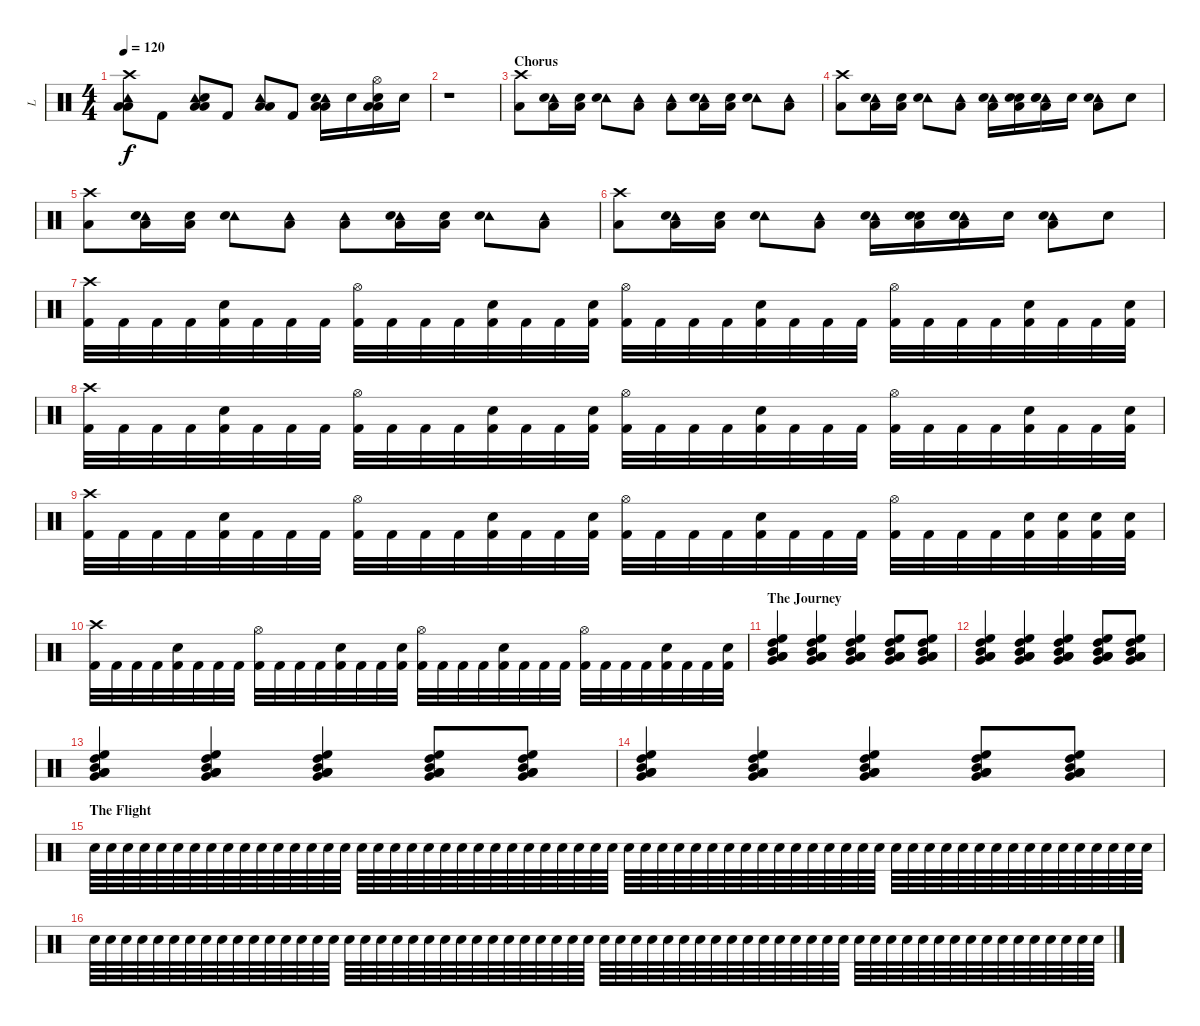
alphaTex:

\track ("L" "L") {instrument percussion}
\staff {score}
\articulation defaults
\ts (4 4)
\tempo 120
\clef neutral
\ks c
("Crash high (hit)" "Tambourine (hit)" "Low Floor Tom (hit)" "Low Floor Tom (hit)").8{dy f} "Kick (hit) 2".8 ("Tambourine (hit)" "Electric Snare (hit)" "Low Floor Tom (hit)" "Low Floor Tom (hit)").8 "Kick (hit) 2".8 ("Tambourine (hit)" "Low Floor Tom (hit)" "Low Floor Tom (hit)").8 "Kick (hit) 2".8 ("Tambourine (hit)" "Electric Snare (hit)" "Low Floor Tom (hit)" "Low Floor Tom (hit)").16 "Electric Snare (hit)".16 ("Hi-Hat (open)" "Electric Snare (hit)" "Low Floor Tom (hit)" "Low Floor Tom (hit)").16 "Electric Snare (hit)".16 |
r.1 |
\section ("" "Chorus")
("Crash high (hit)" "Low Floor Tom (hit)").8 ("Tambourine (hit)" "Snare (hit) 2" "Low Floor Tom (hit)").16 ("Snare (hit) 2" "Low Floor Tom (hit)").16 ("Tambourine (hit)" "Electric Snare (hit)").8 ("Tambourine (hit)" "Low Floor Tom (hit)").8 ("Tambourine (hit)" "Low Floor Tom (hit)").8 ("Tambourine (hit)" "Snare (hit) 2" "Low Floor Tom (hit)").16 ("Snare (hit) 2" "Low Floor Tom (hit)").16 ("Tambourine (hit)" "Electric Snare (hit)").8 ("Tambourine (hit)" "Low Floor Tom (hit)").8 |
("Crash high (hit)" "Low Floor Tom (hit)").8 ("Tambourine (hit)" "Snare (hit) 2" "Low Floor Tom (hit)").16 ("Snare (hit) 2" "Low Floor Tom (hit)").16 ("Tambourine (hit)" "Electric Snare (hit)").8 ("Tambourine (hit)" "Low Floor Tom (hit)").8 ("Tambourine (hit)" "Electric Snare (hit)" "Low Floor Tom (hit)").16 ("Electric Snare (hit)" "Snare (hit) 2" "Low Floor Tom (hit)").16 ("Tambourine (hit)" "Electric Snare (hit)" "Snare (hit) 2" "Low Floor Tom (hit)").16 "Electric Snare (hit)".16 ("Tambourine (hit)" "Electric Snare (hit)" "Low Floor Tom (hit)").8 "Electric Snare (hit)".8 |
("Crash high (hit)" "Low Floor Tom (hit)").8 ("Tambourine (hit)" "Snare (hit) 2" "Low Floor Tom (hit)").16 ("Snare (hit) 2" "Low Floor Tom (hit)").16 ("Tambourine (hit)" "Electric Snare (hit)").8 ("Tambourine (hit)" "Low Floor Tom (hit)").8 ("Tambourine (hit)" "Low Floor Tom (hit)").8 ("Tambourine (hit)" "Snare (hit) 2" "Low Floor Tom (hit)").16 ("Snare (hit) 2" "Low Floor Tom (hit)").16 ("Tambourine (hit)" "Electric Snare (hit)").8 ("Tambourine (hit)" "Low Floor Tom (hit)").8 |
("Crash high (hit)" "Low Floor Tom (hit)").8 ("Tambourine (hit)" "Snare (hit) 2" "Low Floor Tom (hit)").16 ("Snare (hit) 2" "Low Floor Tom (hit)").16 ("Tambourine (hit)" "Electric Snare (hit)").8 ("Tambourine (hit)" "Low Floor Tom (hit)").8 ("Tambourine (hit)" "Electric Snare (hit)" "Low Floor Tom (hit)").16 ("Electric Snare (hit)" "Snare (hit) 2" "Low Floor Tom (hit)").16 ("Tambourine (hit)" "Electric Snare (hit)" "Snare (hit) 2" "Low Floor Tom (hit)").16 "Electric Snare (hit)".16 ("Tambourine (hit)" "Electric Snare (hit)" "Low Floor Tom (hit)").8 "Electric Snare (hit)".8 |
("Crash high (hit)" "Kick (hit) 2").32 "Kick (hit) 2".32 "Kick (hit) 2".32 "Kick (hit) 2".32 ("Electric Snare (hit)" "Kick (hit) 2").32 "Kick (hit) 2".32 "Kick (hit) 2".32 "Kick (hit) 2".32 ("Hi-Hat (open)" "Kick (hit) 2").32 "Kick (hit) 2".32 "Kick (hit) 2".32 "Kick (hit) 2".32 ("Electric Snare (hit)" "Kick (hit) 2").32 "Kick (hit) 2".32 "Kick (hit) 2".32 ("Electric Snare (hit)" "Kick (hit) 2").32 ("Hi-Hat (open)" "Kick (hit) 2").32 "Kick (hit) 2".32 "Kick (hit) 2".32 "Kick (hit) 2".32 ("Electric Snare (hit)" "Kick (hit) 2").32 "Kick (hit) 2".32 "Kick (hit) 2".32 "Kick (hit) 2".32 ("Hi-Hat (open)" "Kick (hit) 2").32 "Kick (hit) 2".32 "Kick (hit) 2".32 "Kick (hit) 2".32 ("Electric Snare (hit)" "Kick (hit) 2").32 "Kick (hit) 2".32 "Kick (hit) 2".32 ("Electric Snare (hit)" "Kick (hit) 2").32 |
("Crash high (hit)" "Kick (hit) 2").32 "Kick (hit) 2".32 "Kick (hit) 2".32 "Kick (hit) 2".32 ("Electric Snare (hit)" "Kick (hit) 2").32 "Kick (hit) 2".32 "Kick (hit) 2".32 "Kick (hit) 2".32 ("Hi-Hat (open)" "Kick (hit) 2").32 "Kick (hit) 2".32 "Kick (hit) 2".32 "Kick (hit) 2".32 ("Electric Snare (hit)" "Kick (hit) 2").32 "Kick (hit) 2".32 "Kick (hit) 2".32 ("Electric Snare (hit)" "Kick (hit) 2").32 ("Hi-Hat (open)" "Kick (hit) 2").32 "Kick (hit) 2".32 "Kick (hit) 2".32 "Kick (hit) 2".32 ("Electric Snare (hit)" "Kick (hit) 2").32 "Kick (hit) 2".32 "Kick (hit) 2".32 "Kick (hit) 2".32 ("Hi-Hat (open)" "Kick (hit) 2").32 "Kick (hit) 2".32 "Kick (hit) 2".32 "Kick (hit) 2".32 ("Electric Snare (hit)" "Kick (hit) 2").32 "Kick (hit) 2".32 "Kick (hit) 2".32 ("Electric Snare (hit)" "Kick (hit) 2").32 |
("Crash high (hit)" "Kick (hit) 2").32 "Kick (hit) 2".32 "Kick (hit) 2".32 "Kick (hit) 2".32 ("Electric Snare (hit)" "Kick (hit) 2").32 "Kick (hit) 2".32 "Kick (hit) 2".32 "Kick (hit) 2".32 ("Hi-Hat (open)" "Kick (hit) 2").32 "Kick (hit) 2".32 "Kick (hit) 2".32 "Kick (hit) 2".32 ("Electric Snare (hit)" "Kick (hit) 2").32 "Kick (hit) 2".32 "Kick (hit) 2".32 ("Electric Snare (hit)" "Kick (hit) 2").32 ("Hi-Hat (open)" "Kick (hit) 2").32 "Kick (hit) 2".32 "Kick (hit) 2".32 "Kick (hit) 2".32 ("Electric Snare (hit)" "Kick (hit) 2").32 "Kick (hit) 2".32 "Kick (hit) 2".32 "Kick (hit) 2".32 ("Hi-Hat (open)" "Kick (hit) 2").32 "Kick (hit) 2".32 "Kick (hit) 2".32 "Kick (hit) 2".32 ("Electric Snare (hit)" "Kick (hit) 2").32 ("Electric Snare (hit)" "Kick (hit) 2").32 ("Electric Snare (hit)" "Kick (hit) 2").32 ("Electric Snare (hit)" "Kick (hit) 2").32 |
("Crash high (hit)" "Kick (hit) 2").32 "Kick (hit) 2".32 "Kick (hit) 2".32 "Kick (hit) 2".32 ("Electric Snare (hit)" "Kick (hit) 2").32 "Kick (hit) 2".32 "Kick (hit) 2".32 "Kick (hit) 2".32 ("Hi-Hat (open)" "Kick (hit) 2").32 "Kick (hit) 2".32 "Kick (hit) 2".32 "Kick (hit) 2".32 ("Electric Snare (hit)" "Kick (hit) 2").32 "Kick (hit) 2".32 "Kick (hit) 2".32 ("Electric Snare (hit)" "Kick (hit) 2").32 ("Hi-Hat (open)" "Kick (hit) 2").32 "Kick (hit) 2".32 "Kick (hit) 2".32 "Kick (hit) 2".32 ("Electric Snare (hit)" "Kick (hit) 2").32 "Kick (hit) 2".32 "Kick (hit) 2".32 "Kick (hit) 2".32 ("Hi-Hat (open)" "Kick (hit) 2").32 "Kick (hit) 2".32 "Kick (hit) 2".32 "Kick (hit) 2".32 ("Electric Snare (hit)" "Kick (hit) 2").32 "Kick (hit) 2".32 "Kick (hit) 2".32 ("Electric Snare (hit)" "Kick (hit) 2").32 |
\section ("" "The Journey")
("High Floor Tom (hit)" "High Tom (hit)" "Mid Tom (hit)" "Low Tom (hit)" "Very Low Tom (hit)" "Low Floor Tom (hit)").4 ("High Floor Tom (hit)" "High Tom (hit)" "Mid Tom (hit)" "Low Tom (hit)" "Very Low Tom (hit)" "Low Floor Tom (hit)").4 ("High Floor Tom (hit)" "High Tom (hit)" "Mid Tom (hit)" "Low Tom (hit)" "Very Low Tom (hit)" "Low Floor Tom (hit)").4 ("High Floor Tom (hit)" "High Tom (hit)" "Mid Tom (hit)" "Low Tom (hit)" "Very Low Tom (hit)" "Low Floor Tom (hit)").8 ("High Floor Tom (hit)" "High Tom (hit)" "Mid Tom (hit)" "Low Tom (hit)" "Very Low Tom (hit)" "Low Floor Tom (hit)").8 |
("High Floor Tom (hit)" "High Tom (hit)" "Mid Tom (hit)" "Low Tom (hit)" "Very Low Tom (hit)" "Low Floor Tom (hit)").4 ("High Floor Tom (hit)" "High Tom (hit)" "Mid Tom (hit)" "Low Tom (hit)" "Very Low Tom (hit)" "Low Floor Tom (hit)").4 ("High Floor Tom (hit)" "High Tom (hit)" "Mid Tom (hit)" "Low Tom (hit)" "Very Low Tom (hit)" "Low Floor Tom (hit)").4 ("High Floor Tom (hit)" "High Tom (hit)" "Mid Tom (hit)" "Low Tom (hit)" "Very Low Tom (hit)" "Low Floor Tom (hit)").8 ("High Floor Tom (hit)" "High Tom (hit)" "Mid Tom (hit)" "Low Tom (hit)" "Very Low Tom (hit)" "Low Floor Tom (hit)").8 |
("High Floor Tom (hit)" "High Tom (hit)" "Mid Tom (hit)" "Low Tom (hit)" "Very Low Tom (hit)" "Low Floor Tom (hit)").4 ("High Floor Tom (hit)" "High Tom (hit)" "Mid Tom (hit)" "Low Tom (hit)" "Very Low Tom (hit)" "Low Floor Tom (hit)").4 ("High Floor Tom (hit)" "High Tom (hit)" "Mid Tom (hit)" "Low Tom (hit)" "Very Low Tom (hit)" "Low Floor Tom (hit)").4 ("High Floor Tom (hit)" "High Tom (hit)" "Mid Tom (hit)" "Low Tom (hit)" "Very Low Tom (hit)" "Low Floor Tom (hit)").8 ("High Floor Tom (hit)" "High Tom (hit)" "Mid Tom (hit)" "Low Tom (hit)" "Very Low Tom (hit)" "Low Floor Tom (hit)").8 |
("High Floor Tom (hit)" "High Tom (hit)" "Mid Tom (hit)" "Low Tom (hit)" "Very Low Tom (hit)" "Low Floor Tom (hit)").4 ("High Floor Tom (hit)" "High Tom (hit)" "Mid Tom (hit)" "Low Tom (hit)" "Very Low Tom (hit)" "Low Floor Tom (hit)").4 ("High Floor Tom (hit)" "High Tom (hit)" "Mid Tom (hit)" "Low Tom (hit)" "Very Low Tom (hit)" "Low Floor Tom (hit)").4 ("High Floor Tom (hit)" "High Tom (hit)" "Mid Tom (hit)" "Low Tom (hit)" "Very Low Tom (hit)" "Low Floor Tom (hit)").8 ("High Floor Tom (hit)" "High Tom (hit)" "Mid Tom (hit)" "Low Tom (hit)" "Very Low Tom (hit)" "Low Floor Tom (hit)").8 |
\section ("" "The Flight")
"Electric Snare (hit)".64 "Electric Snare (hit)".64 "Electric Snare (hit)".64 "Electric Snare (hit)".64 "Electric Snare (hit)".64 "Electric Snare (hit)".64 "Electric Snare (hit)".64 "Electric Snare (hit)".64 "Electric Snare (hit)".64 "Electric Snare (hit)".64 "Electric Snare (hit)".64 "Electric Snare (hit)".64 "Electric Snare (hit)".64 "Electric Snare (hit)".64 "Electric Snare (hit)".64 "Electric Snare (hit)".64 "Electric Snare (hit)".64 "Electric Snare (hit)".64 "Electric Snare (hit)".64 "Electric Snare (hit)".64 "Electric Snare (hit)".64 "Electric Snare (hit)".64 "Electric Snare (hit)".64 "Electric Snare (hit)".64 "Electric Snare (hit)".64 "Electric Snare (hit)".64 "Electric Snare (hit)".64 "Electric Snare (hit)".64 "Electric Snare (hit)".64 "Electric Snare (hit)".64 "Electric Snare (hit)".64 "Electric Snare (hit)".64 "Electric Snare (hit)".64 "Electric Snare (hit)".64 "Electric Snare (hit)".64 "Electric Snare (hit)".64 "Electric Snare (hit)".64 "Electric Snare (hit)".64 "Electric Snare (hit)".64 "Electric Snare (hit)".64 "Electric Snare (hit)".64 "Electric Snare (hit)".64 "Electric Snare (hit)".64 "Electric Snare (hit)".64 "Electric Snare (hit)".64 "Electric Snare (hit)".64 "Electric Snare (hit)".64 "Electric Snare (hit)".64 "Electric Snare (hit)".64 "Electric Snare (hit)".64 "Electric Snare (hit)".64 "Electric Snare (hit)".64 "Electric Snare (hit)".64 "Electric Snare (hit)".64 "Electric Snare (hit)".64 "Electric Snare (hit)".64 "Electric Snare (hit)".64 "Electric Snare (hit)".64 "Electric Snare (hit)".64 "Electric Snare (hit)".64 "Electric Snare (hit)".64 "Electric Snare (hit)".64 "Electric Snare (hit)".64 "Electric Snare (hit)".64 |
"Electric Snare (hit)".64 "Electric Snare (hit)".64 "Electric Snare (hit)".64 "Electric Snare (hit)".64 "Electric Snare (hit)".64 "Electric Snare (hit)".64 "Electric Snare (hit)".64 "Electric Snare (hit)".64 "Electric Snare (hit)".64 "Electric Snare (hit)".64 "Electric Snare (hit)".64 "Electric Snare (hit)".64 "Electric Snare (hit)".64 "Electric Snare (hit)".64 "Electric Snare (hit)".64 "Electric Snare (hit)".64 "Electric Snare (hit)".64 "Electric Snare (hit)".64 "Electric Snare (hit)".64 "Electric Snare (hit)".64 "Electric Snare (hit)".64 "Electric Snare (hit)".64 "Electric Snare (hit)".64 "Electric Snare (hit)".64 "Electric Snare (hit)".64 "Electric Snare (hit)".64 "Electric Snare (hit)".64 "Electric Snare (hit)".64 "Electric Snare (hit)".64 "Electric Snare (hit)".64 "Electric Snare (hit)".64 "Electric Snare (hit)".64 "Electric Snare (hit)".64 "Electric Snare (hit)".64 "Electric Snare (hit)".64 "Electric Snare (hit)".64 "Electric Snare (hit)".64 "Electric Snare (hit)".64 "Electric Snare (hit)".64 "Electric Snare (hit)".64 "Electric Snare (hit)".64 "Electric Snare (hit)".64 "Electric Snare (hit)".64 "Electric Snare (hit)".64 "Electric Snare (hit)".64 "Electric Snare (hit)".64 "Electric Snare (hit)".64 "Electric Snare (hit)".64 "Electric Snare (hit)".64 "Electric Snare (hit)".64 "Electric Snare (hit)".64 "Electric Snare (hit)".64 "Electric Snare (hit)".64 "Electric Snare (hit)".64 "Electric Snare (hit)".64 "Electric Snare (hit)".64 "Electric Snare (hit)".64 "Electric Snare (hit)".64 "Electric Snare (hit)".64 "Electric Snare (hit)".64 "Electric Snare (hit)".64 "Electric Snare (hit)".64 "Electric Snare (hit)".64 "Electric Snare (hit)".64
